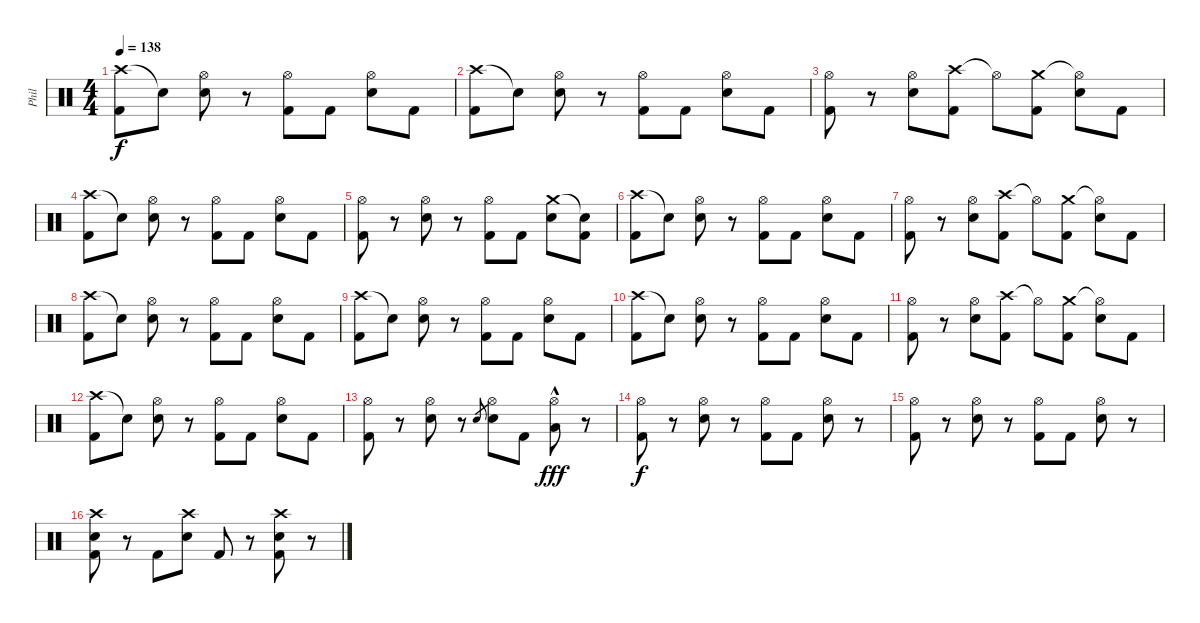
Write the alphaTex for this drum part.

\track ("Phil" "Phil") {instrument percussion}
\staff {score}
\articulation defaults
\ts (4 4)
\tempo 138
\clef neutral
\ks c
("Crash high (hit)" "Kick (hit) 2").8{dy f} "Snare (hit)"{t}.8 ("Hi-Hat (open)" "Snare (hit) 2").8 r.8 ("Hi-Hat (open)" "Kick (hit) 2").8 "Kick (hit) 2".8 ("Hi-Hat (open)" "Snare (hit) 2").8 "Kick (hit) 2".8 |
("Crash high (hit)" "Kick (hit) 2").8 "Snare (hit)"{t}.8 ("Hi-Hat (open)" "Snare (hit) 2").8 r.8 ("Hi-Hat (open)" "Kick (hit) 2").8 "Kick (hit) 2".8 ("Hi-Hat (open)" "Snare (hit) 2").8 "Kick (hit) 2".8 |
("Hi-Hat (open)" "Kick (hit) 2").8 r.8 ("Hi-Hat (open)" "Snare (hit) 2").8 ("Crash high (hit)" "Kick (hit) 2").8 "Hi-Hat (open)"{t}.8 ("Crash medium (hit)" "Kick (hit) 2").8 ("Hi-Hat (open)"{t} "Snare (hit) 2").8 "Kick (hit) 2".8 |
("Crash high (hit)" "Kick (hit) 2").8 "Snare (hit)"{t}.8 ("Hi-Hat (open)" "Snare (hit) 2").8 r.8 ("Hi-Hat (open)" "Kick (hit) 2").8 "Kick (hit) 2".8 ("Hi-Hat (open)" "Snare (hit) 2").8 "Kick (hit) 2".8 |
("Hi-Hat (open)" "Kick (hit) 2").8 r.8 ("Hi-Hat (open)" "Snare (hit) 2").8 r.8 ("Hi-Hat (open)" "Kick (hit) 2").8 "Kick (hit) 2".8 ("Crash medium (hit)" "Snare (hit) 2").8 ("Snare (hit)"{t} "Kick (hit) 2").8 |
("Crash high (hit)" "Kick (hit) 2").8 "Snare (hit)"{t}.8 ("Hi-Hat (open)" "Snare (hit) 2").8 r.8 ("Hi-Hat (open)" "Kick (hit) 2").8 "Kick (hit) 2".8 ("Hi-Hat (open)" "Snare (hit) 2").8 "Kick (hit) 2".8 |
("Hi-Hat (open)" "Kick (hit) 2").8 r.8 ("Hi-Hat (open)" "Snare (hit) 2").8 ("Crash high (hit)" "Kick (hit) 2").8 "Hi-Hat (open)"{t}.8 ("Crash medium (hit)" "Kick (hit) 2").8 ("Hi-Hat (open)"{t} "Snare (hit) 2").8 "Kick (hit) 2".8 |
("Crash high (hit)" "Kick (hit) 2").8 "Snare (hit)"{t}.8 ("Hi-Hat (open)" "Snare (hit) 2").8 r.8 ("Hi-Hat (open)" "Kick (hit) 2").8 "Kick (hit) 2".8 ("Hi-Hat (open)" "Snare (hit) 2").8 "Kick (hit) 2".8 |
("Crash high (hit)" "Kick (hit) 2").8 "Snare (hit)"{t}.8 ("Hi-Hat (open)" "Snare (hit) 2").8 r.8 ("Hi-Hat (open)" "Kick (hit) 2").8 "Kick (hit) 2".8 ("Hi-Hat (open)" "Snare (hit) 2").8 "Kick (hit) 2".8 |
("Crash high (hit)" "Kick (hit) 2").8 "Snare (hit)"{t}.8 ("Hi-Hat (open)" "Snare (hit) 2").8 r.8 ("Hi-Hat (open)" "Kick (hit) 2").8 "Kick (hit) 2".8 ("Hi-Hat (open)" "Snare (hit) 2").8 "Kick (hit) 2".8 |
("Hi-Hat (open)" "Kick (hit) 2").8 r.8 ("Hi-Hat (open)" "Snare (hit) 2").8 ("Crash high (hit)" "Kick (hit) 2").8 "Hi-Hat (open)"{t}.8 ("Crash medium (hit)" "Kick (hit) 2").8 ("Hi-Hat (open)"{t} "Snare (hit) 2").8 "Kick (hit) 2".8 |
("Crash high (hit)" "Kick (hit) 2").8 "Snare (hit)"{t}.8 ("Hi-Hat (open)" "Snare (hit) 2").8 r.8 ("Hi-Hat (open)" "Kick (hit) 2").8 "Kick (hit) 2".8 ("Hi-Hat (open)" "Snare (hit) 2").8 "Kick (hit) 2".8 |
("Hi-Hat (open)" "Kick (hit) 2").8 r.8 ("Hi-Hat (open)" "Snare (hit) 2").8 r.8 "Snare (hit) 2".8{gr} ("Hi-Hat (open)" "Snare (hit) 2").8 "Kick (hit) 2".8 ("Hi-Hat (open)" "Low Tom (hit)"{hac}).8{dy fff balance 15} r.8{balance 8} |
("Hi-Hat (open)" "Kick (hit) 2").8{dy f} r.8 ("Hi-Hat (open)" "Snare (hit) 2").8 r.8 ("Hi-Hat (open)" "Kick (hit) 2").8 "Kick (hit) 2".8 ("Hi-Hat (open)" "Snare (hit) 2").8 r.8 |
("Hi-Hat (open)" "Kick (hit) 2").8 r.8 ("Hi-Hat (open)" "Snare (hit) 2").8 r.8 ("Hi-Hat (open)" "Kick (hit) 2").8 "Kick (hit) 2".8 ("Hi-Hat (open)" "Snare (hit) 2").8 r.8 |
("Crash high (hit)" "Snare (hit) 2" "Kick (hit) 2").8 r.8 "Kick (hit) 2".8 ("Crash high (hit)" "Snare (hit) 2").8 "Kick (hit) 2".8 r.8 ("Crash high (hit)" "Snare (hit) 2" "Kick (hit) 2").8 r.8
